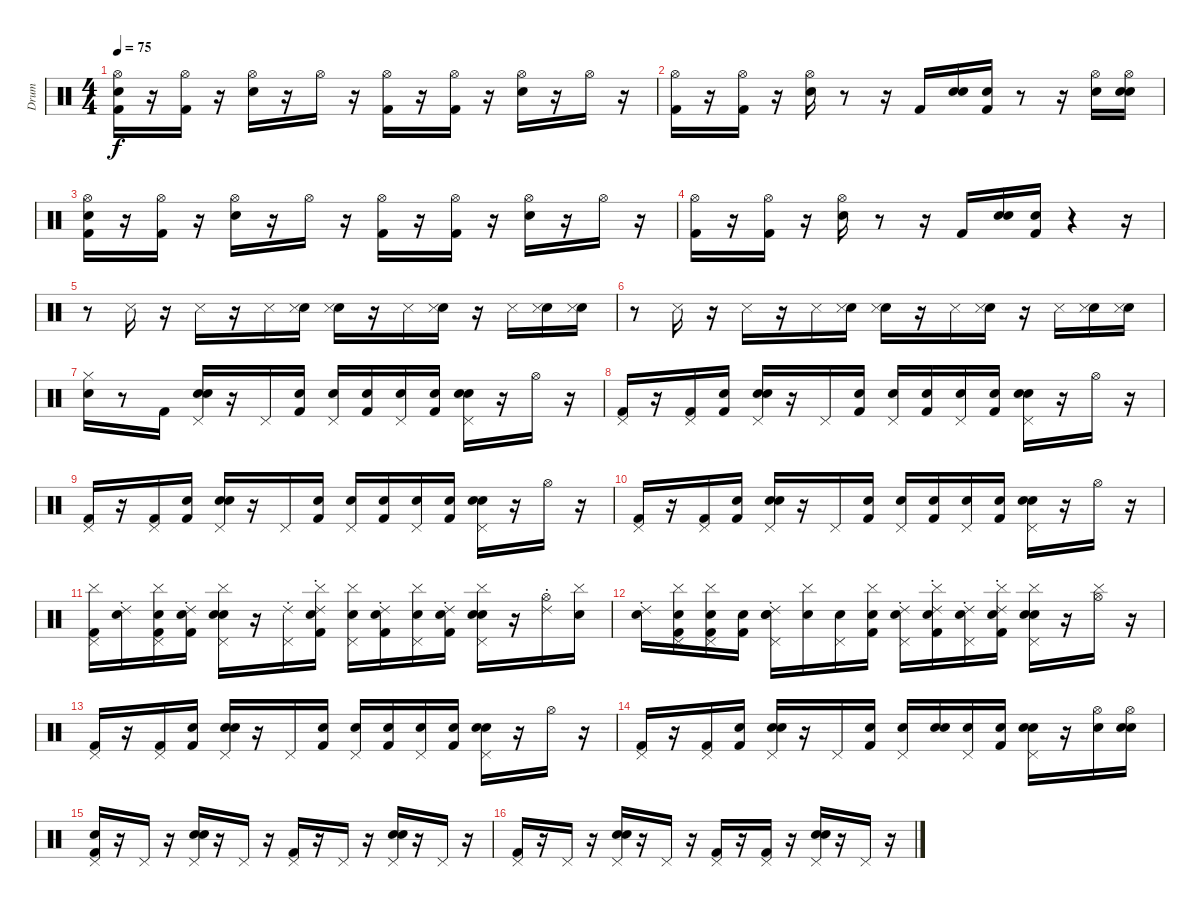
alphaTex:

\track ("Drum" "Drum") {instrument percussion}
\staff {score}
\articulation defaults
\ts (4 4)
\tempo 75
\clef neutral
\ks c
("Snare (hit)" "Hi-Hat (open)" "Kick (hit) 2").16{dy f} r.16 ("Hi-Hat (open)" "Kick (hit) 2").16 r.16 ("Hi-Hat (open)" "Snare (hit) 2").16 r.16 "Hi-Hat (open)".16 r.16 ("Kick (hit) 2" "Hi-Hat (open)").16 r.16 ("Kick (hit) 2" "Hi-Hat (open)").16 r.16 ("Snare (hit) 2" "Hi-Hat (open)").16 r.16 "Hi-Hat (open)".16 r.16 |
("Hi-Hat (open)" "Kick (hit) 2").16 r.16 ("Hi-Hat (open)" "Kick (hit) 2").16 r.16 ("Snare (hit) 2" "Hi-Hat (open)").16 r.8 r.16 "Kick (hit) 2".16 ("Snare (hit)" "Electric Snare (hit)").16 ("Snare (hit)" "Kick (hit) 2").16 r.8 r.16 ("Hi-Hat (open)" "Snare (hit) 2").16 ("Snare (hit)" "Hi-Hat (open)" "Snare (hit) 2").16 |
("Snare (hit)" "Hi-Hat (open)" "Kick (hit) 2").16 r.16 ("Hi-Hat (open)" "Kick (hit) 2").16 r.16 ("Hi-Hat (open)" "Snare (hit) 2").16 r.16 "Hi-Hat (open)".16 r.16 ("Kick (hit) 2" "Hi-Hat (open)").16 r.16 ("Kick (hit) 2" "Hi-Hat (open)").16 r.16 ("Snare (hit) 2" "Hi-Hat (open)").16 r.16 "Hi-Hat (open)".16 r.16 |
("Hi-Hat (open)" "Kick (hit) 2").16 r.16 ("Hi-Hat (open)" "Kick (hit) 2").16 r.16 ("Snare (hit) 2" "Hi-Hat (open)").16 r.8 r.16 "Kick (hit) 2".16 ("Snare (hit)" "Electric Snare (hit)").16 ("Snare (hit)" "Kick (hit) 2").16 r.4 r.16 |
r.8 "Snare (side stick) 3".16 r.16 "Snare (side stick) 3".16 r.16 "Snare (side stick) 3".16 ("Snare (hit)" "Snare (side stick) 3").16 ("Snare (hit)" "Snare (side stick) 3").16 r.16 "Snare (side stick) 3".16 ("Snare (hit)" "Snare (side stick) 3").16 r.16 "Snare (side stick) 3".16 ("Snare (hit)" "Snare (side stick) 3").16 ("Snare (hit)" "Snare (side stick) 3").16 |
r.8 "Snare (side stick) 3".16 r.16 "Snare (side stick) 3".16 r.16 "Snare (side stick) 3".16 ("Snare (hit)" "Snare (side stick) 3").16 ("Snare (hit)" "Snare (side stick) 3").16 r.16 "Snare (side stick) 3".16 ("Snare (hit)" "Snare (side stick) 3").16 r.16 "Snare (side stick) 3".16 ("Snare (hit)" "Snare (side stick) 3").16 ("Snare (hit)" "Snare (side stick) 3").16 |
("Snare (hit)" "Hi-Hat (closed)").16 r.8 "Kick (hit) 2".16 ("Snare (hit)" "Snare (hit) 2" "Pedal Hi-Hat (hit)").16 r.16 "Pedal Hi-Hat (hit)".16 ("Snare (hit)" "Kick (hit) 2").16 ("Snare (hit)" "Pedal Hi-Hat (hit)").16 ("Snare (hit)" "Kick (hit) 2").16 ("Snare (hit)" "Pedal Hi-Hat (hit)").16 ("Snare (hit)" "Kick (hit) 2").16 ("Snare (hit)" "Pedal Hi-Hat (hit)" "Snare (hit) 2").16 r.16 "Hi-Hat (open)".16 r.16 |
("Pedal Hi-Hat (hit)" "Kick (hit) 2").16 r.16 ("Pedal Hi-Hat (hit)" "Kick (hit) 2").16 ("Snare (hit)" "Kick (hit) 2").16 ("Snare (hit)" "Snare (hit) 2" "Pedal Hi-Hat (hit)").16 r.16 "Pedal Hi-Hat (hit)".16 ("Snare (hit)" "Kick (hit) 2").16 ("Snare (hit)" "Pedal Hi-Hat (hit)").16 ("Snare (hit)" "Kick (hit) 2").16 ("Snare (hit)" "Pedal Hi-Hat (hit)").16 ("Snare (hit)" "Kick (hit) 2").16 ("Snare (hit)" "Pedal Hi-Hat (hit)" "Snare (hit) 2").16 r.16 "Hi-Hat (open)".16 r.16 |
("Pedal Hi-Hat (hit)" "Kick (hit) 2").16 r.16 ("Pedal Hi-Hat (hit)" "Kick (hit) 2").16 ("Snare (hit)" "Kick (hit) 2").16 ("Snare (hit)" "Snare (hit) 2" "Pedal Hi-Hat (hit)").16 r.16 "Pedal Hi-Hat (hit)".16 ("Snare (hit)" "Kick (hit) 2").16 ("Snare (hit)" "Pedal Hi-Hat (hit)").16 ("Snare (hit)" "Kick (hit) 2").16 ("Snare (hit)" "Pedal Hi-Hat (hit)").16 ("Snare (hit)" "Kick (hit) 2").16 ("Snare (hit)" "Pedal Hi-Hat (hit)" "Snare (hit) 2").16 r.16 "Hi-Hat (open)".16 r.16 |
("Pedal Hi-Hat (hit)" "Kick (hit) 2").16 r.16 ("Pedal Hi-Hat (hit)" "Kick (hit) 2").16 ("Snare (hit)" "Kick (hit) 2").16 ("Snare (hit)" "Snare (hit) 2" "Pedal Hi-Hat (hit)").16 r.16 "Pedal Hi-Hat (hit)".16 ("Snare (hit)" "Kick (hit) 2").16 ("Snare (hit)" "Pedal Hi-Hat (hit)").16 ("Snare (hit)" "Kick (hit) 2").16 ("Snare (hit)" "Pedal Hi-Hat (hit)").16 ("Snare (hit)" "Kick (hit) 2").16 ("Snare (hit)" "Pedal Hi-Hat (hit)" "Snare (hit) 2").16 r.16 "Hi-Hat (open)".16 r.16 |
("Cymbal (hit)" "Pedal Hi-Hat (hit)" "Kick (hit) 2").16 ("Snare (hit)" "Ride (choke) 2").16 ("Snare (hit)" "Cymbal (hit)" "Kick (hit) 2" "Pedal Hi-Hat (hit)").16 ("Snare (hit)" "Ride (choke) 2" "Kick (hit) 2").16 ("Snare (hit)" "Cymbal (hit)" "Snare (hit) 2" "Pedal Hi-Hat (hit)").16 r.16 ("Ride (choke) 2" "Pedal Hi-Hat (hit)").16 ("Snare (hit)" "Cymbal (hit)" "Kick (hit) 2" "Ride (choke) 2").16 ("Snare (hit)" "Cymbal (hit)" "Pedal Hi-Hat (hit)").16 ("Snare (hit)" "Ride (choke) 2" "Kick (hit) 2").16 ("Snare (hit)" "Cymbal (hit)" "Pedal Hi-Hat (hit)").16 ("Snare (hit)" "Ride (choke) 2" "Kick (hit) 2").16 ("Snare (hit)" "Cymbal (hit)" "Pedal Hi-Hat (hit)" "Snare (hit) 2").16 r.16 ("Ride (choke) 2" "Hi-Hat (open)").16 ("Snare (hit)" "Cymbal (hit)").16 |
("Snare (hit)" "Ride (choke) 2").16 ("Snare (hit)" "Cymbal (hit)" "Kick (hit) 2" "Pedal Hi-Hat (hit)").16 ("Snare (hit)" "Cymbal (hit)" "Kick (hit) 2" "Pedal Hi-Hat (hit)").16 ("Snare (hit)" "Kick (hit) 2").16 ("Snare (hit)" "Ride (choke) 2" "Pedal Hi-Hat (hit)" "Snare (hit) 2").16 ("Snare (hit)" "Cymbal (hit)").16 ("Snare (hit)" "Pedal Hi-Hat (hit)").16 ("Snare (hit)" "Cymbal (hit)" "Kick (hit) 2").16 ("Snare (hit)" "Ride (choke) 2" "Pedal Hi-Hat (hit)").16 ("Snare (hit)" "Cymbal (hit)" "Kick (hit) 2" "Ride (choke) 2").16 ("Snare (hit)" "Ride (choke) 2" "Pedal Hi-Hat (hit)").16 ("Snare (hit)" "Cymbal (hit)" "Kick (hit) 2" "Ride (choke) 2").16 ("Snare (hit)" "Cymbal (hit)" "Snare (hit) 2" "Pedal Hi-Hat (hit)").16 r.16 ("Cymbal (hit)" "Hi-Hat (open)").16 r.16 |
("Pedal Hi-Hat (hit)" "Kick (hit) 2").16 r.16 ("Pedal Hi-Hat (hit)" "Kick (hit) 2").16 ("Snare (hit)" "Kick (hit) 2").16 ("Snare (hit)" "Pedal Hi-Hat (hit)" "Snare (hit) 2").16 r.16 "Pedal Hi-Hat (hit)".16 ("Snare (hit)" "Kick (hit) 2").16 ("Snare (hit)" "Pedal Hi-Hat (hit)").16 ("Snare (hit)" "Kick (hit) 2").16 ("Snare (hit)" "Pedal Hi-Hat (hit)").16 ("Snare (hit)" "Kick (hit) 2").16 ("Snare (hit)" "Snare (hit) 2" "Pedal Hi-Hat (hit)").16 r.16 "Hi-Hat (open)".16 r.16 |
("Kick (hit) 2" "Pedal Hi-Hat (hit)").16 r.16 ("Kick (hit) 2" "Pedal Hi-Hat (hit)").16 ("Snare (hit)" "Kick (hit) 2").16 ("Snare (hit)" "Snare (hit) 2" "Pedal Hi-Hat (hit)").16 r.16 "Pedal Hi-Hat (hit)".16 ("Snare (hit)" "Kick (hit) 2").16 ("Snare (hit)" "Pedal Hi-Hat (hit)").16 ("Snare (hit)" "Snare (hit) 2").16 ("Snare (hit)" "Pedal Hi-Hat (hit)").16 ("Snare (hit)" "Kick (hit) 2").16 ("Snare (hit)" "Snare (hit) 2" "Pedal Hi-Hat (hit)").16 r.16 ("Hi-Hat (open)" "Snare (hit) 2").16 ("Snare (hit)" "Snare (hit) 2" "Hi-Hat (open)").16 |
("Snare (hit)" "Pedal Hi-Hat (hit)" "Kick (hit) 2").16 r.16 "Pedal Hi-Hat (hit)".16 r.16 ("Pedal Hi-Hat (hit)" "Snare (hit) 2" "Electric Snare (hit)").16 r.16 "Pedal Hi-Hat (hit)".16 r.16 ("Pedal Hi-Hat (hit)" "Kick (hit) 2").16 r.16 "Pedal Hi-Hat (hit)".16 r.16 ("Pedal Hi-Hat (hit)" "Electric Snare (hit)" "Snare (hit) 2").16 r.16 "Pedal Hi-Hat (hit)".16 r.16 |
("Kick (hit) 2" "Pedal Hi-Hat (hit)").16 r.16 "Pedal Hi-Hat (hit)".16 r.16 ("Electric Snare (hit)" "Snare (hit) 2" "Pedal Hi-Hat (hit)").16 r.16 "Pedal Hi-Hat (hit)".16 r.16 ("Kick (hit) 2" "Pedal Hi-Hat (hit)").16 r.16 ("Pedal Hi-Hat (hit)" "Kick (hit) 2").16 r.16 ("Electric Snare (hit)" "Snare (hit) 2" "Pedal Hi-Hat (hit)").16 r.16 "Pedal Hi-Hat (hit)".16 r.16
